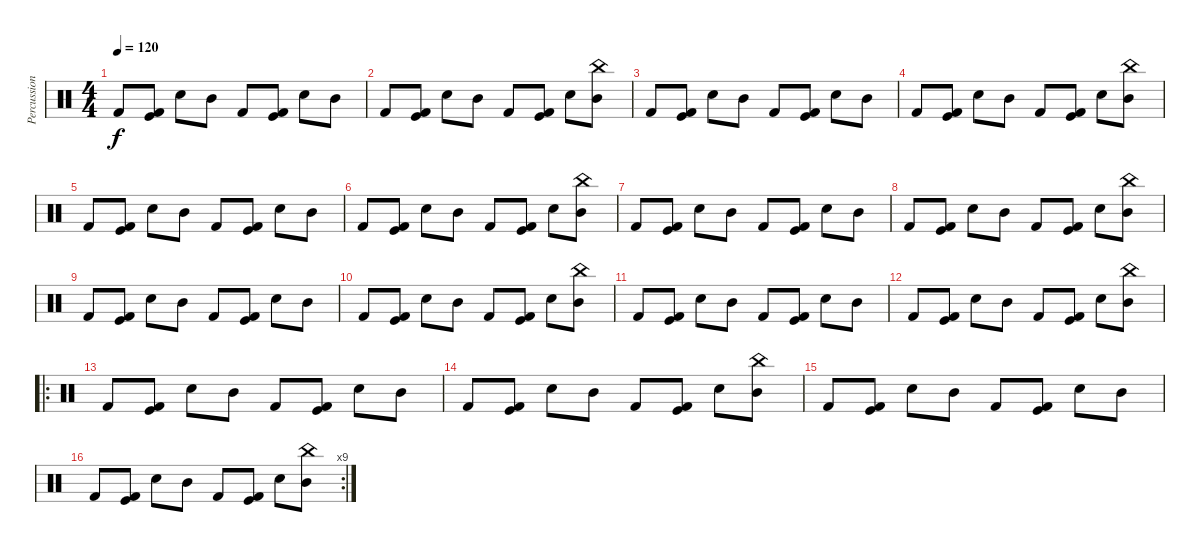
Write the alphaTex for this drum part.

\track ("Percussion" "Percussion") {instrument percussion}
\staff {score}
\articulation defaults
\ts (4 4)
\tempo 120
\clef neutral
\ks c "Kick (hit) 2".8{dy f}
("Kick (hit)" "Kick (hit) 2").8 "Snare (hit) 2".8 "Mid Tom (hit)".8 "Kick (hit) 2".8 ("Kick (hit)" "Kick (hit) 2").8 "Snare (hit) 2".8 "Mid Tom (hit)".8 |
"Kick (hit) 2".8 ("Kick (hit)" "Kick (hit) 2").8 "Snare (hit) 2".8 "Mid Tom (hit)".8 "Kick (hit) 2".8 ("Kick (hit)" "Kick (hit) 2").8 "Snare (hit) 2".8 ("China (hit)" "Mid Tom (hit)").8 |
"Kick (hit) 2".8 ("Kick (hit)" "Kick (hit) 2").8 "Snare (hit) 2".8 "Mid Tom (hit)".8 "Kick (hit) 2".8 ("Kick (hit)" "Kick (hit) 2").8 "Snare (hit) 2".8 "Mid Tom (hit)".8 |
"Kick (hit) 2".8 ("Kick (hit)" "Kick (hit) 2").8 "Snare (hit) 2".8 "Mid Tom (hit)".8 "Kick (hit) 2".8 ("Kick (hit)" "Kick (hit) 2").8 "Snare (hit) 2".8 ("China (hit)" "Mid Tom (hit)").8 |
"Kick (hit) 2".8 ("Kick (hit)" "Kick (hit) 2").8 "Snare (hit) 2".8 "Mid Tom (hit)".8 "Kick (hit) 2".8 ("Kick (hit)" "Kick (hit) 2").8 "Snare (hit) 2".8 "Mid Tom (hit)".8 |
"Kick (hit) 2".8 ("Kick (hit)" "Kick (hit) 2").8 "Snare (hit) 2".8 "Mid Tom (hit)".8 "Kick (hit) 2".8 ("Kick (hit)" "Kick (hit) 2").8 "Snare (hit) 2".8 ("China (hit)" "Mid Tom (hit)").8 |
"Kick (hit) 2".8 ("Kick (hit)" "Kick (hit) 2").8 "Snare (hit) 2".8 "Mid Tom (hit)".8 "Kick (hit) 2".8 ("Kick (hit)" "Kick (hit) 2").8 "Snare (hit) 2".8 "Mid Tom (hit)".8 |
"Kick (hit) 2".8 ("Kick (hit)" "Kick (hit) 2").8 "Snare (hit) 2".8 "Mid Tom (hit)".8 "Kick (hit) 2".8 ("Kick (hit)" "Kick (hit) 2").8 "Snare (hit) 2".8 ("China (hit)" "Mid Tom (hit)").8 |
"Kick (hit) 2".8 ("Kick (hit)" "Kick (hit) 2").8 "Snare (hit) 2".8 "Mid Tom (hit)".8 "Kick (hit) 2".8 ("Kick (hit)" "Kick (hit) 2").8 "Snare (hit) 2".8 "Mid Tom (hit)".8 |
"Kick (hit) 2".8 ("Kick (hit)" "Kick (hit) 2").8 "Snare (hit) 2".8 "Mid Tom (hit)".8 "Kick (hit) 2".8 ("Kick (hit)" "Kick (hit) 2").8 "Snare (hit) 2".8 ("China (hit)" "Mid Tom (hit)").8 |
"Kick (hit) 2".8 ("Kick (hit)" "Kick (hit) 2").8 "Snare (hit) 2".8 "Mid Tom (hit)".8 "Kick (hit) 2".8 ("Kick (hit)" "Kick (hit) 2").8 "Snare (hit) 2".8 "Mid Tom (hit)".8 |
"Kick (hit) 2".8 ("Kick (hit)" "Kick (hit) 2").8 "Snare (hit) 2".8 "Mid Tom (hit)".8 "Kick (hit) 2".8 ("Kick (hit)" "Kick (hit) 2").8 "Snare (hit) 2".8 ("China (hit)" "Mid Tom (hit)").8 |
\ro "Kick (hit) 2".8
("Kick (hit)" "Kick (hit) 2").8 "Snare (hit) 2".8 "Mid Tom (hit)".8 "Kick (hit) 2".8 ("Kick (hit)" "Kick (hit) 2").8 "Snare (hit) 2".8 "Mid Tom (hit)".8 |
"Kick (hit) 2".8 ("Kick (hit)" "Kick (hit) 2").8 "Snare (hit) 2".8 "Mid Tom (hit)".8 "Kick (hit) 2".8 ("Kick (hit)" "Kick (hit) 2").8 "Snare (hit) 2".8 ("China (hit)" "Mid Tom (hit)").8 |
"Kick (hit) 2".8 ("Kick (hit)" "Kick (hit) 2").8 "Snare (hit) 2".8 "Mid Tom (hit)".8 "Kick (hit) 2".8 ("Kick (hit)" "Kick (hit) 2").8 "Snare (hit) 2".8 "Mid Tom (hit)".8 |
\rc 9 "Kick (hit) 2".8
("Kick (hit)" "Kick (hit) 2").8 "Snare (hit) 2".8 "Mid Tom (hit)".8 "Kick (hit) 2".8 ("Kick (hit)" "Kick (hit) 2").8 "Snare (hit) 2".8 ("China (hit)" "Mid Tom (hit)").8
